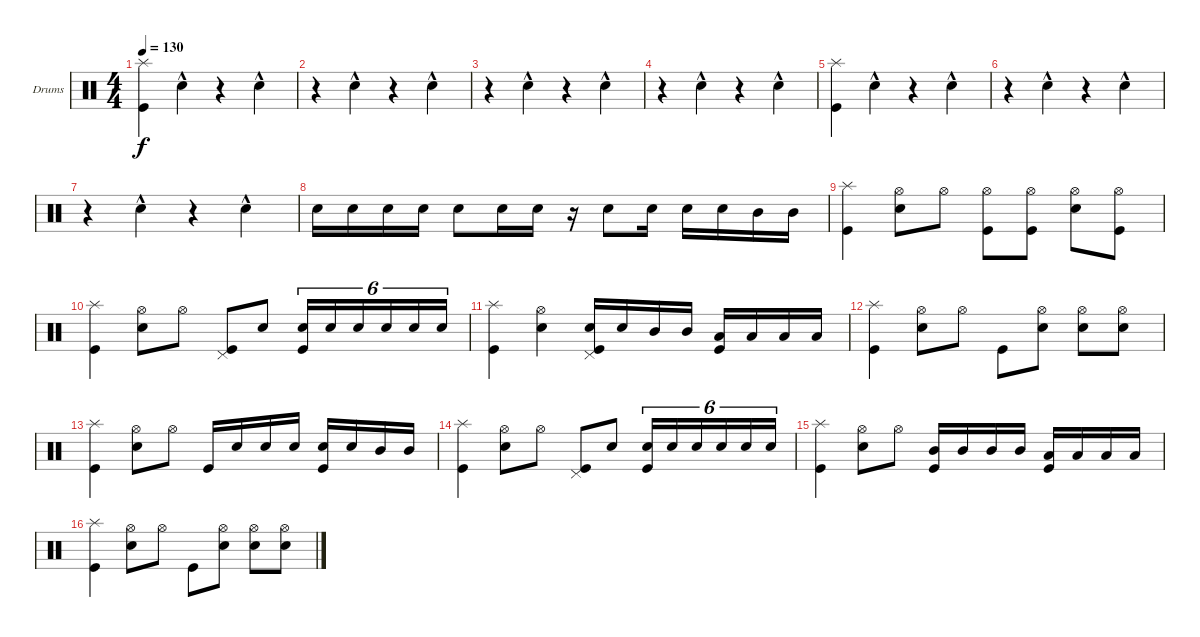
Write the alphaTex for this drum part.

\defaultSystemsLayout 4
\bracketExtendMode groupsimilarinstruments
\firstSystemTrackNameOrientation horizontal
\otherSystemsTrackNameOrientation horizontal
\track ("Inazawa" "Drums") {instrument percussion}
\staff {score}
\articulation defaults
\ts (4 4)
\tempo 130
\clef neutral
\ks c
("Kick (hit)" "Splash (hit)").4{dy f} "Snare (hit) 2"{hac}.4 r.4 "Snare (hit) 2"{hac}.4 |
r.4 "Snare (hit) 2"{hac}.4 r.4 "Snare (hit) 2"{hac}.4 |
r.4 "Snare (hit) 2"{hac}.4 r.4 "Snare (hit) 2"{hac}.4 |
r.4 "Snare (hit) 2"{hac}.4 r.4 "Snare (hit) 2"{hac}.4 |
("Kick (hit)" "Splash (hit)").4 "Snare (hit) 2"{hac}.4 r.4 "Snare (hit) 2"{hac}.4 |
r.4 "Snare (hit) 2"{hac}.4 r.4 "Snare (hit) 2"{hac}.4 |
r.4 "Snare (hit) 2"{hac}.4 r.4 "Snare (hit) 2"{hac}.4 |
"Snare (hit) 2".16 "Snare (hit) 2".16 "Snare (hit) 2".16 "Snare (hit) 2".16 "Snare (hit) 2".8 "Snare (hit) 2".16 "Snare (hit) 2".16 r.16 "Snare (hit) 2".8 "Snare (hit) 2".16 "Snare (hit) 2".16 "Snare (hit) 2".16 "Mid Tom (hit)".16 "Mid Tom (hit)".16 |
("Kick (hit)" "Splash (hit)").4 ("Hi-Hat (open)" "Snare (hit) 2").8 "Hi-Hat (open)".8 ("Hi-Hat (open)" "Kick (hit)").8 ("Hi-Hat (open)" "Kick (hit)").8 ("Hi-Hat (open)" "Snare (hit) 2").8 ("Hi-Hat (open)" "Kick (hit)").8 |
("Kick (hit)" "Splash (hit)").4 ("Hi-Hat (open)" "Snare (hit) 2").8 "Hi-Hat (open)".8 ("Kick (hit)" "Pedal Hi-Hat (hit)").8 "Snare (hit) 2".8 ("Snare (hit) 2" "Kick (hit)").16{tu (6 4)} "Snare (hit) 2".16{tu (6 4)} "Snare (hit) 2".16{tu (6 4)} "Snare (hit) 2".16{tu (6 4)} "Snare (hit) 2".16{tu (6 4)} "Snare (hit) 2".16{tu (6 4)} |
("Kick (hit)" "Splash (hit)").4 ("Snare (hit) 2" "Hi-Hat (open)").4 ("Snare (hit) 2" "Kick (hit)" "Pedal Hi-Hat (hit)").16 "Snare (hit) 2".16 "Mid Tom (hit)".16 "Mid Tom (hit)".16 ("Low Tom (hit)" "Kick (hit)").16 "Low Tom (hit)".16 "Low Tom (hit)".16 "Low Tom (hit)".16 |
("Kick (hit)" "Splash (hit)").4 ("Hi-Hat (open)" "Snare (hit) 2").8 "Hi-Hat (open)".8 "Kick (hit)".8 ("Snare (hit) 2" "Hi-Hat (open)").8 ("Hi-Hat (open)" "Snare (hit) 2").8 ("Snare (hit) 2" "Hi-Hat (open)").8 |
("Splash (hit)" "Kick (hit)").4 ("Snare (hit) 2" "Hi-Hat (open)").8 "Hi-Hat (open)".8 "Kick (hit)".16 "Snare (hit) 2".16 "Snare (hit) 2".16 "Snare (hit) 2".16 ("Snare (hit) 2" "Kick (hit)").16 "Snare (hit) 2".16 "Mid Tom (hit)".16 "Mid Tom (hit)".16 |
("Kick (hit)" "Splash (hit)").4 ("Hi-Hat (open)" "Snare (hit) 2").8 "Hi-Hat (open)".8 ("Kick (hit)" "Pedal Hi-Hat (hit)").8 "Snare (hit) 2".8 ("Snare (hit) 2" "Kick (hit)").16{tu (6 4)} "Snare (hit) 2".16{tu (6 4)} "Snare (hit) 2".16{tu (6 4)} "Snare (hit) 2".16{tu (6 4)} "Snare (hit) 2".16{tu (6 4)} "Snare (hit) 2".16{tu (6 4)} |
("Kick (hit)" "Splash (hit)").4 ("Hi-Hat (open)" "Snare (hit) 2").8 "Hi-Hat (open)".8 ("Mid Tom (hit)" "Kick (hit)").16 "Mid Tom (hit)".16 "Mid Tom (hit)".16 "Mid Tom (hit)".16 ("Low Tom (hit)" "Kick (hit)").16 "Low Tom (hit)".16 "Low Tom (hit)".16 "Low Tom (hit)".16 |
("Kick (hit)" "Splash (hit)").4 ("Hi-Hat (open)" "Snare (hit) 2").8 "Hi-Hat (open)".8 "Kick (hit)".8 ("Snare (hit) 2" "Hi-Hat (open)").8 ("Snare (hit) 2" "Hi-Hat (open)").8 ("Snare (hit) 2" "Hi-Hat (open)").8
